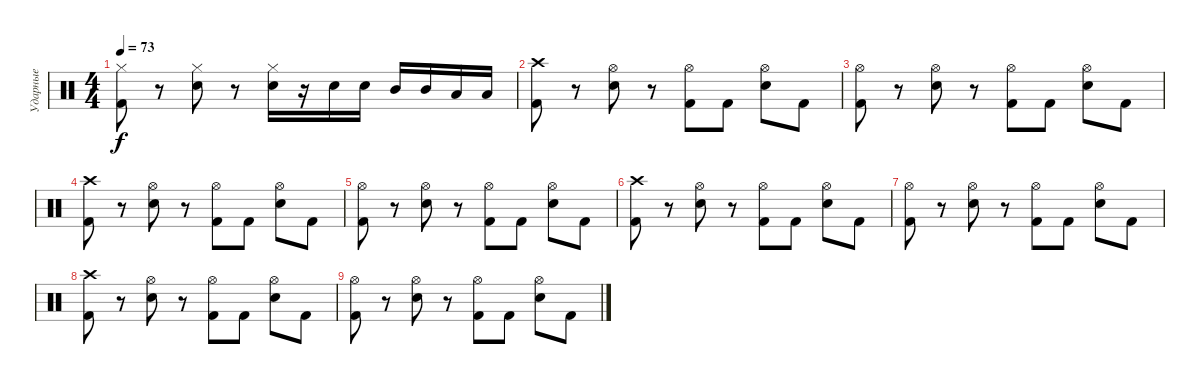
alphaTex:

\track ("Ударные" "Ударные") {instrument percussion}
\staff {score}
\articulation defaults
\ts (4 4)
\tempo 73
\clef neutral
\ks c
("Kick (hit) 2" "Hi-Hat (closed)").8{dy f} r.8 ("Electric Snare (hit)" "Hi-Hat (closed)").8 r.8 ("Electric Snare (hit)" "Hi-Hat (closed)").16 r.16 "Electric Snare (hit)".16 "Electric Snare (hit)".16 "Mid Tom (hit)".16 "Mid Tom (hit)".16 "Low Tom (hit)".16 "Low Tom (hit)".16 |
("Kick (hit) 2" "Crash high (hit)").8 r.8 ("Electric Snare (hit)" "Hi-Hat (open)").8 r.8 ("Kick (hit) 2" "Hi-Hat (open)").8 "Kick (hit) 2".8 ("Electric Snare (hit)" "Hi-Hat (open)").8 "Kick (hit) 2".8 |
("Kick (hit) 2" "Hi-Hat (open)").8 r.8 ("Electric Snare (hit)" "Hi-Hat (open)").8 r.8 ("Kick (hit) 2" "Hi-Hat (open)").8 "Kick (hit) 2".8 ("Electric Snare (hit)" "Hi-Hat (open)").8 "Kick (hit) 2".8 |
("Kick (hit) 2" "Crash high (hit)").8 r.8 ("Electric Snare (hit)" "Hi-Hat (open)").8 r.8 ("Kick (hit) 2" "Hi-Hat (open)").8 "Kick (hit) 2".8 ("Electric Snare (hit)" "Hi-Hat (open)").8 "Kick (hit) 2".8 |
("Kick (hit) 2" "Hi-Hat (open)").8 r.8 ("Electric Snare (hit)" "Hi-Hat (open)").8 r.8 ("Kick (hit) 2" "Hi-Hat (open)").8 "Kick (hit) 2".8 ("Electric Snare (hit)" "Hi-Hat (open)").8 "Kick (hit) 2".8 |
("Kick (hit) 2" "Crash high (hit)").8 r.8 ("Electric Snare (hit)" "Hi-Hat (open)").8 r.8 ("Kick (hit) 2" "Hi-Hat (open)").8 "Kick (hit) 2".8 ("Electric Snare (hit)" "Hi-Hat (open)").8 "Kick (hit) 2".8 |
("Kick (hit) 2" "Hi-Hat (open)").8 r.8 ("Electric Snare (hit)" "Hi-Hat (open)").8 r.8 ("Kick (hit) 2" "Hi-Hat (open)").8 "Kick (hit) 2".8 ("Electric Snare (hit)" "Hi-Hat (open)").8 "Kick (hit) 2".8 |
("Kick (hit) 2" "Crash high (hit)").8 r.8 ("Electric Snare (hit)" "Hi-Hat (open)").8 r.8 ("Kick (hit) 2" "Hi-Hat (open)").8 "Kick (hit) 2".8 ("Electric Snare (hit)" "Hi-Hat (open)").8 "Kick (hit) 2".8 |
("Kick (hit) 2" "Hi-Hat (open)").8 r.8 ("Electric Snare (hit)" "Hi-Hat (open)").8 r.8 ("Kick (hit) 2" "Hi-Hat (open)").8 "Kick (hit) 2".8 ("Electric Snare (hit)" "Hi-Hat (open)").8 "Kick (hit) 2".8
